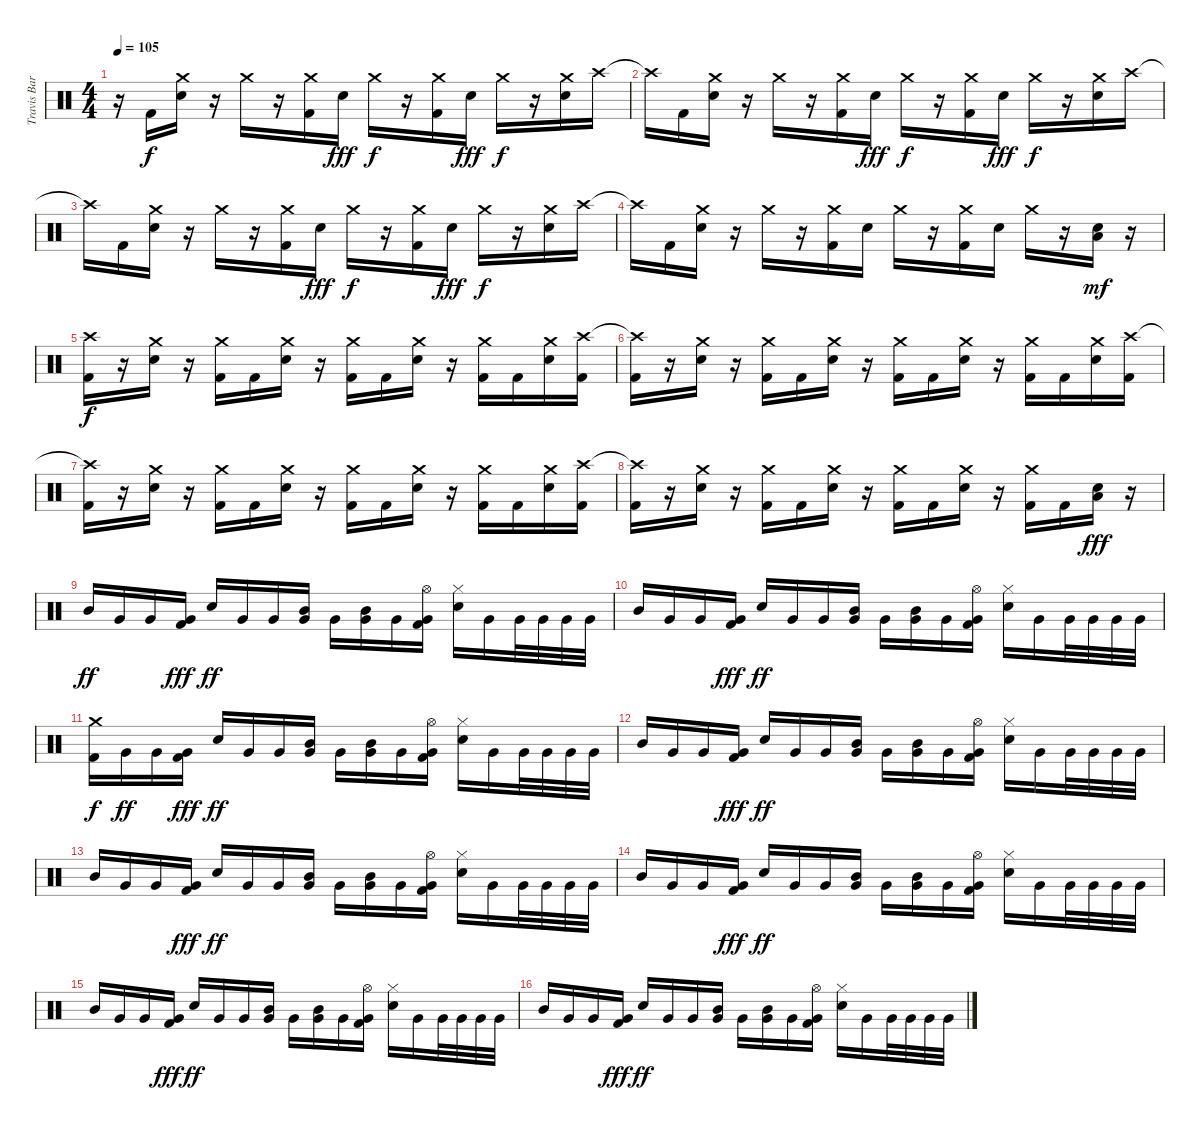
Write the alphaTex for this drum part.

\track ("Travis Barker" "Travis Bar") {instrument percussion}
\staff {score}
\articulation defaults
\ts (4 4)
\tempo 105
\clef neutral
\ks c
r.16{dy f} "Kick (hit) 2".16 ("Crash medium (hit)" "Electric Snare (hit)").16 r.16 "Crash medium (hit)".16 r.16 ("Crash medium (hit)" "Kick (hit) 2").16 "Electric Snare (hit)".16{dy fff} "Crash medium (hit)".16{dy f} r.16 ("Crash medium (hit)" "Kick (hit) 2").16 "Electric Snare (hit)".16{dy fff} "Crash medium (hit)".16{dy f} r.16 ("Crash medium (hit)" "Electric Snare (hit)").16 "Crash high (hit)".16 |
"Crash high (hit)"{t}.16 "Kick (hit) 2".16 ("Crash medium (hit)" "Electric Snare (hit)").16 r.16 "Crash medium (hit)".16 r.16 ("Crash medium (hit)" "Kick (hit) 2").16 "Electric Snare (hit)".16{dy fff} "Crash medium (hit)".16{dy f} r.16 ("Crash medium (hit)" "Kick (hit) 2").16 "Electric Snare (hit)".16{dy fff} "Crash medium (hit)".16{dy f} r.16 ("Crash medium (hit)" "Electric Snare (hit)").16 "Crash high (hit)".16 |
"Crash high (hit)"{t}.16 "Kick (hit) 2".16 ("Crash medium (hit)" "Electric Snare (hit)").16 r.16 "Crash medium (hit)".16 r.16 ("Crash medium (hit)" "Kick (hit) 2").16 "Electric Snare (hit)".16{dy fff} "Crash medium (hit)".16{dy f} r.16 ("Crash medium (hit)" "Kick (hit) 2").16 "Electric Snare (hit)".16{dy fff} "Crash medium (hit)".16{dy f} r.16 ("Crash medium (hit)" "Electric Snare (hit)").16 "Crash high (hit)".16 |
"Crash high (hit)"{t}.16 "Kick (hit) 2".16 ("Crash medium (hit)" "Electric Snare (hit)").16 r.16 "Crash medium (hit)".16 r.16 ("Crash medium (hit)" "Kick (hit) 2").16 "Electric Snare (hit)".16 "Crash medium (hit)".16 r.16 ("Crash medium (hit)" "Kick (hit) 2").16 "Electric Snare (hit)".16 "Crash medium (hit)".16 r.16 ("Low Tom (hit)" "Electric Snare (hit)").16{dy mf} r.16 |
("Crash high (hit)" "Kick (hit) 2").16{dy f} r.16 ("Crash medium (hit)" "Electric Snare (hit)").16 r.16 ("Crash medium (hit)" "Kick (hit) 2").16 "Kick (hit) 2".16 ("Crash medium (hit)" "Electric Snare (hit)").16 r.16 ("Crash medium (hit)" "Kick (hit) 2").16 "Kick (hit) 2".16 ("Crash medium (hit)" "Electric Snare (hit)").16 r.16 ("Crash medium (hit)" "Kick (hit) 2").16 "Kick (hit) 2".16 ("Crash medium (hit)" "Electric Snare (hit)").16 ("Crash high (hit)" "Kick (hit) 2").16 |
("Crash high (hit)"{t} "Kick (hit) 2").16 r.16 ("Crash medium (hit)" "Electric Snare (hit)").16 r.16 ("Crash medium (hit)" "Kick (hit) 2").16 "Kick (hit) 2".16 ("Crash medium (hit)" "Electric Snare (hit)").16 r.16 ("Crash medium (hit)" "Kick (hit) 2").16 "Kick (hit) 2".16 ("Crash medium (hit)" "Electric Snare (hit)").16 r.16 ("Crash medium (hit)" "Kick (hit) 2").16 "Kick (hit) 2".16 ("Crash medium (hit)" "Electric Snare (hit)").16 ("Crash high (hit)" "Kick (hit) 2").16 |
("Crash high (hit)"{t} "Kick (hit) 2").16 r.16 ("Crash medium (hit)" "Electric Snare (hit)").16 r.16 ("Crash medium (hit)" "Kick (hit) 2").16 "Kick (hit) 2".16 ("Crash medium (hit)" "Electric Snare (hit)").16 r.16 ("Crash medium (hit)" "Kick (hit) 2").16 "Kick (hit) 2".16 ("Crash medium (hit)" "Electric Snare (hit)").16 r.16 ("Crash medium (hit)" "Kick (hit) 2").16 "Kick (hit) 2".16 ("Crash medium (hit)" "Electric Snare (hit)").16 ("Crash high (hit)" "Kick (hit) 2").16 |
("Crash high (hit)"{t} "Kick (hit) 2").16 r.16 ("Crash medium (hit)" "Electric Snare (hit)").16 r.16 ("Crash medium (hit)" "Kick (hit) 2").16 "Kick (hit) 2".16 ("Crash medium (hit)" "Electric Snare (hit)").16 r.16 ("Crash medium (hit)" "Kick (hit) 2").16 "Kick (hit) 2".16 ("Crash medium (hit)" "Electric Snare (hit)").16 r.16 ("Crash medium (hit)" "Kick (hit) 2").16 "Kick (hit) 2".16 ("Low Tom (hit)" "Electric Snare (hit)").16{dy fff} r.16 |
"Mid Tom (hit)".16{dy ff} "Very Low Tom (hit)".16 "Very Low Tom (hit)".16 ("Very Low Tom (hit)" "Kick (hit) 2").16{dy fff} "Electric Snare (hit)".16{dy ff} "Very Low Tom (hit)".16 "Very Low Tom (hit)".16 ("Mid Tom (hit)" "Very Low Tom (hit)").16 "Very Low Tom (hit)".16 ("Mid Tom (hit)" "Very Low Tom (hit)").16 "Very Low Tom (hit)".16 ("Hi-Hat (open)" "Very Low Tom (hit)" "Kick (hit) 2").16 ("Hi-Hat (closed)" "Electric Snare (hit)").16 "Very Low Tom (hit)".16 "Very Low Tom (hit)".32 "Very Low Tom (hit)".32 "Very Low Tom (hit)".32 "Very Low Tom (hit)".32 |
"Mid Tom (hit)".16 "Very Low Tom (hit)".16 "Very Low Tom (hit)".16 ("Very Low Tom (hit)" "Kick (hit) 2").16{dy fff} "Electric Snare (hit)".16{dy ff} "Very Low Tom (hit)".16 "Very Low Tom (hit)".16 ("Mid Tom (hit)" "Very Low Tom (hit)").16 "Very Low Tom (hit)".16 ("Mid Tom (hit)" "Very Low Tom (hit)").16 "Very Low Tom (hit)".16 ("Hi-Hat (open)" "Very Low Tom (hit)" "Kick (hit) 2").16 ("Hi-Hat (closed)" "Electric Snare (hit)").16 "Very Low Tom (hit)".16 "Very Low Tom (hit)".32 "Very Low Tom (hit)".32 "Very Low Tom (hit)".32 "Very Low Tom (hit)".32 |
("Crash medium (hit)" "Kick (hit) 2").16{dy f} "Very Low Tom (hit)".16{dy ff} "Very Low Tom (hit)".16 ("Very Low Tom (hit)" "Kick (hit) 2").16{dy fff} "Electric Snare (hit)".16{dy ff} "Very Low Tom (hit)".16 "Very Low Tom (hit)".16 ("Mid Tom (hit)" "Very Low Tom (hit)").16 "Very Low Tom (hit)".16 ("Mid Tom (hit)" "Very Low Tom (hit)").16 "Very Low Tom (hit)".16 ("Hi-Hat (open)" "Very Low Tom (hit)" "Kick (hit) 2").16 ("Hi-Hat (closed)" "Electric Snare (hit)").16 "Very Low Tom (hit)".16 "Very Low Tom (hit)".32 "Very Low Tom (hit)".32 "Very Low Tom (hit)".32 "Very Low Tom (hit)".32 |
"Mid Tom (hit)".16 "Very Low Tom (hit)".16 "Very Low Tom (hit)".16 ("Very Low Tom (hit)" "Kick (hit) 2").16{dy fff} "Electric Snare (hit)".16{dy ff} "Very Low Tom (hit)".16 "Very Low Tom (hit)".16 ("Mid Tom (hit)" "Very Low Tom (hit)").16 "Very Low Tom (hit)".16 ("Mid Tom (hit)" "Very Low Tom (hit)").16 "Very Low Tom (hit)".16 ("Hi-Hat (open)" "Very Low Tom (hit)" "Kick (hit) 2").16 ("Hi-Hat (closed)" "Electric Snare (hit)").16 "Very Low Tom (hit)".16 "Very Low Tom (hit)".32 "Very Low Tom (hit)".32 "Very Low Tom (hit)".32 "Very Low Tom (hit)".32 |
"Mid Tom (hit)".16 "Very Low Tom (hit)".16 "Very Low Tom (hit)".16 ("Very Low Tom (hit)" "Kick (hit) 2").16{dy fff} "Electric Snare (hit)".16{dy ff} "Very Low Tom (hit)".16 "Very Low Tom (hit)".16 ("Mid Tom (hit)" "Very Low Tom (hit)").16 "Very Low Tom (hit)".16 ("Mid Tom (hit)" "Very Low Tom (hit)").16 "Very Low Tom (hit)".16 ("Hi-Hat (open)" "Very Low Tom (hit)" "Kick (hit) 2").16 ("Hi-Hat (closed)" "Electric Snare (hit)").16 "Very Low Tom (hit)".16 "Very Low Tom (hit)".32 "Very Low Tom (hit)".32 "Very Low Tom (hit)".32 "Very Low Tom (hit)".32 |
"Mid Tom (hit)".16 "Very Low Tom (hit)".16 "Very Low Tom (hit)".16 ("Very Low Tom (hit)" "Kick (hit) 2").16{dy fff} "Electric Snare (hit)".16{dy ff} "Very Low Tom (hit)".16 "Very Low Tom (hit)".16 ("Mid Tom (hit)" "Very Low Tom (hit)").16 "Very Low Tom (hit)".16 ("Mid Tom (hit)" "Very Low Tom (hit)").16 "Very Low Tom (hit)".16 ("Hi-Hat (open)" "Very Low Tom (hit)" "Kick (hit) 2").16 ("Hi-Hat (closed)" "Electric Snare (hit)").16 "Very Low Tom (hit)".16 "Very Low Tom (hit)".32 "Very Low Tom (hit)".32 "Very Low Tom (hit)".32 "Very Low Tom (hit)".32 |
"Mid Tom (hit)".16 "Very Low Tom (hit)".16 "Very Low Tom (hit)".16 ("Very Low Tom (hit)" "Kick (hit) 2").16{dy fff} "Electric Snare (hit)".16{dy ff} "Very Low Tom (hit)".16 "Very Low Tom (hit)".16 ("Mid Tom (hit)" "Very Low Tom (hit)").16 "Very Low Tom (hit)".16 ("Mid Tom (hit)" "Very Low Tom (hit)").16 "Very Low Tom (hit)".16 ("Hi-Hat (open)" "Very Low Tom (hit)" "Kick (hit) 2").16 ("Hi-Hat (closed)" "Electric Snare (hit)").16 "Very Low Tom (hit)".16 "Very Low Tom (hit)".32 "Very Low Tom (hit)".32 "Very Low Tom (hit)".32 "Very Low Tom (hit)".32 |
"Mid Tom (hit)".16 "Very Low Tom (hit)".16 "Very Low Tom (hit)".16 ("Very Low Tom (hit)" "Kick (hit) 2").16{dy fff} "Electric Snare (hit)".16{dy ff} "Very Low Tom (hit)".16 "Very Low Tom (hit)".16 ("Mid Tom (hit)" "Very Low Tom (hit)").16 "Very Low Tom (hit)".16 ("Mid Tom (hit)" "Very Low Tom (hit)").16 "Very Low Tom (hit)".16 ("Hi-Hat (open)" "Very Low Tom (hit)" "Kick (hit) 2").16 ("Hi-Hat (closed)" "Electric Snare (hit)").16 "Very Low Tom (hit)".16 "Very Low Tom (hit)".32 "Very Low Tom (hit)".32 "Very Low Tom (hit)".32 "Very Low Tom (hit)".32
